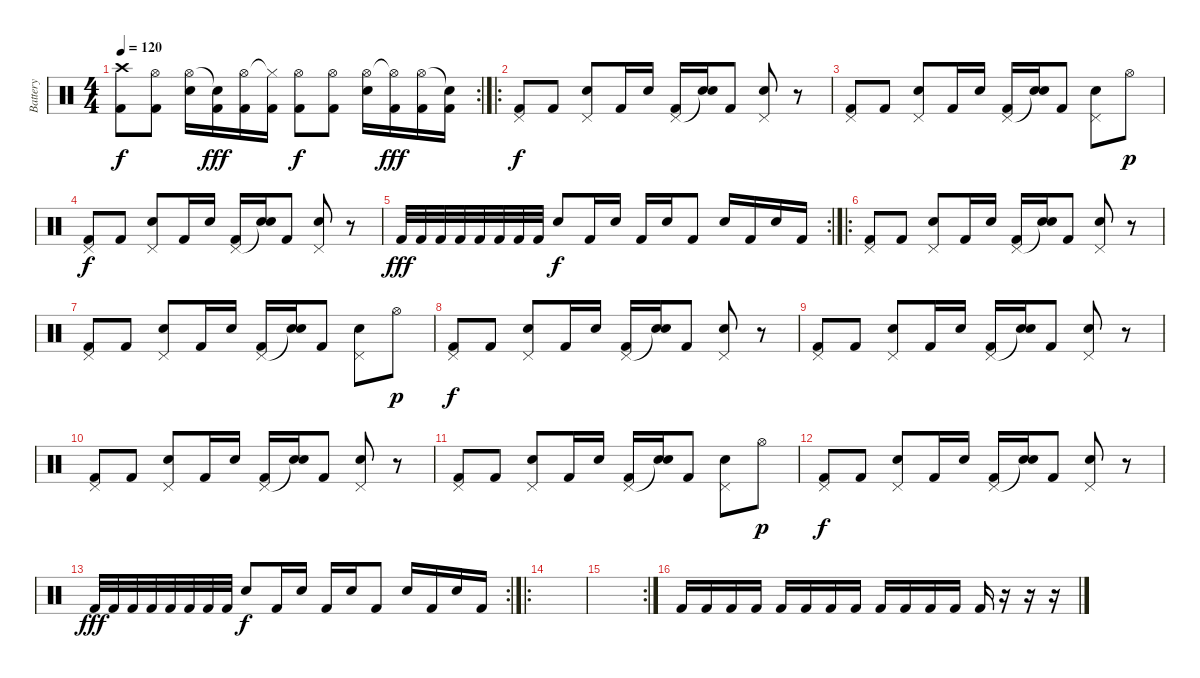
\track ("Battery" "Battery") {instrument percussion}
\staff {score}
\articulation defaults
\rc 2
\ts (4 4)
\tempo 120
\clef neutral
\ks c
("Crash high (hit)" "Kick (hit) 2").8{dy f} ("Hi-Hat (open)" "Kick (hit) 2").8 ("Hi-Hat (open)" "Electric Snare (hit)").16 ("Snare (hit)"{t} "Kick (hit) 2").16{dy fff} ("Hi-Hat (open)" "Kick (hit) 2").16 ("Hi-Hat (closed)"{t} "Kick (hit) 2").16 ("Hi-Hat (open)" "Kick (hit) 2").8{dy f} ("Hi-Hat (open)" "Kick (hit) 2").8 ("Hi-Hat (open)" "Electric Snare (hit)").16 ("Hi-Hat (open)"{t} "Kick (hit) 2").16{dy fff} ("Hi-Hat (open)" "Kick (hit) 2").16 ("Snare (hit)"{t} "Kick (hit) 2").16 |
\ro
("Pedal Hi-Hat (hit)" "Kick (hit) 2").8{dy f} "Kick (hit) 2".8 ("Pedal Hi-Hat (hit)" "Electric Snare (hit)").8 "Kick (hit) 2".16 "Electric Snare (hit)".16 ("Pedal Hi-Hat (hit)" "Kick (hit) 2").16 ("Snare (hit)"{t} "Electric Snare (hit)").16 "Kick (hit) 2".8 ("Pedal Hi-Hat (hit)" "Electric Snare (hit)").8 r.8 |
("Pedal Hi-Hat (hit)" "Kick (hit) 2").8 "Kick (hit) 2".8 ("Pedal Hi-Hat (hit)" "Electric Snare (hit)").8 "Kick (hit) 2".16 "Electric Snare (hit)".16 ("Pedal Hi-Hat (hit)" "Kick (hit) 2").16 ("Snare (hit)"{t} "Electric Snare (hit)").16 "Kick (hit) 2".8 ("Pedal Hi-Hat (hit)" "Electric Snare (hit)").8 "Hi-Hat (open)".8{dy p} |
("Pedal Hi-Hat (hit)" "Kick (hit) 2").8{dy f} "Kick (hit) 2".8 ("Pedal Hi-Hat (hit)" "Electric Snare (hit)").8 "Kick (hit) 2".16 "Electric Snare (hit)".16 ("Pedal Hi-Hat (hit)" "Kick (hit) 2").16 ("Snare (hit)"{t} "Electric Snare (hit)").16 "Kick (hit) 2".8 ("Pedal Hi-Hat (hit)" "Electric Snare (hit)").8 r.8 |
\rc 2 "Kick (hit) 2".32{dy fff} "Kick (hit) 2".32 "Kick (hit) 2".32 "Kick (hit) 2".32 "Kick (hit) 2".32 "Kick (hit) 2".32 "Kick (hit) 2".32 "Kick (hit) 2".32 "Electric Snare (hit)".8{dy f} "Kick (hit) 2".16 "Electric Snare (hit)".16 "Kick (hit) 2".16 "Electric Snare (hit)".16 "Kick (hit) 2".8 "Electric Snare (hit)".16 "Kick (hit) 2".16 "Electric Snare (hit)".16 "Kick (hit) 2".16
|
\ro
("Pedal Hi-Hat (hit)" "Kick (hit) 2").8 "Kick (hit) 2".8 ("Pedal Hi-Hat (hit)" "Electric Snare (hit)").8 "Kick (hit) 2".16 "Electric Snare (hit)".16 ("Pedal Hi-Hat (hit)" "Kick (hit) 2").16 ("Snare (hit)"{t} "Electric Snare (hit)").16 "Kick (hit) 2".8 ("Pedal Hi-Hat (hit)" "Electric Snare (hit)").8 r.8 |
("Pedal Hi-Hat (hit)" "Kick (hit) 2").8 "Kick (hit) 2".8 ("Pedal Hi-Hat (hit)" "Electric Snare (hit)").8 "Kick (hit) 2".16 "Electric Snare (hit)".16 ("Pedal Hi-Hat (hit)" "Kick (hit) 2").16 ("Snare (hit)"{t} "Electric Snare (hit)").16 "Kick (hit) 2".8 ("Pedal Hi-Hat (hit)" "Electric Snare (hit)").8 "Hi-Hat (open)".8{dy p} |
("Pedal Hi-Hat (hit)" "Kick (hit) 2").8{dy f} "Kick (hit) 2".8 ("Pedal Hi-Hat (hit)" "Electric Snare (hit)").8 "Kick (hit) 2".16 "Electric Snare (hit)".16 ("Pedal Hi-Hat (hit)" "Kick (hit) 2").16 ("Snare (hit)"{t} "Electric Snare (hit)").16 "Kick (hit) 2".8 ("Pedal Hi-Hat (hit)" "Electric Snare (hit)").8 r.8 |
("Pedal Hi-Hat (hit)" "Kick (hit) 2").8 "Kick (hit) 2".8 ("Pedal Hi-Hat (hit)" "Electric Snare (hit)").8 "Kick (hit) 2".16 "Electric Snare (hit)".16 ("Pedal Hi-Hat (hit)" "Kick (hit) 2").16 ("Snare (hit)"{t} "Electric Snare (hit)").16 "Kick (hit) 2".8 ("Pedal Hi-Hat (hit)" "Electric Snare (hit)").8 r.8 |
("Pedal Hi-Hat (hit)" "Kick (hit) 2").8 "Kick (hit) 2".8 ("Pedal Hi-Hat (hit)" "Electric Snare (hit)").8 "Kick (hit) 2".16 "Electric Snare (hit)".16 ("Pedal Hi-Hat (hit)" "Kick (hit) 2").16 ("Snare (hit)"{t} "Electric Snare (hit)").16 "Kick (hit) 2".8 ("Pedal Hi-Hat (hit)" "Electric Snare (hit)").8 r.8 |
("Pedal Hi-Hat (hit)" "Kick (hit) 2").8 "Kick (hit) 2".8 ("Pedal Hi-Hat (hit)" "Electric Snare (hit)").8 "Kick (hit) 2".16 "Electric Snare (hit)".16 ("Pedal Hi-Hat (hit)" "Kick (hit) 2").16 ("Snare (hit)"{t} "Electric Snare (hit)").16 "Kick (hit) 2".8 ("Pedal Hi-Hat (hit)" "Electric Snare (hit)").8 "Hi-Hat (open)".8{dy p} |
("Pedal Hi-Hat (hit)" "Kick (hit) 2").8{dy f} "Kick (hit) 2".8 ("Pedal Hi-Hat (hit)" "Electric Snare (hit)").8 "Kick (hit) 2".16 "Electric Snare (hit)".16 ("Pedal Hi-Hat (hit)" "Kick (hit) 2").16 ("Snare (hit)"{t} "Electric Snare (hit)").16 "Kick (hit) 2".8 ("Pedal Hi-Hat (hit)" "Electric Snare (hit)").8 r.8 |
\rc 2 "Kick (hit) 2".32{dy fff} "Kick (hit) 2".32 "Kick (hit) 2".32 "Kick (hit) 2".32 "Kick (hit) 2".32 "Kick (hit) 2".32 "Kick (hit) 2".32 "Kick (hit) 2".32 "Electric Snare (hit)".8{dy f} "Kick (hit) 2".16 "Electric Snare (hit)".16 "Kick (hit) 2".16 "Electric Snare (hit)".16 "Kick (hit) 2".8 "Electric Snare (hit)".16 "Kick (hit) 2".16 "Electric Snare (hit)".16 "Kick (hit) 2".16
|
\ro
|
\rc 2
|
"Kick (hit) 2".16 "Kick (hit) 2".16 "Kick (hit) 2".16 "Kick (hit) 2".16 "Kick (hit) 2".16 "Kick (hit) 2".16 "Kick (hit) 2".16 "Kick (hit) 2".16 "Kick (hit) 2".16 "Kick (hit) 2".16 "Kick (hit) 2".16 "Kick (hit) 2".16 "Kick (hit) 2".16 r.16 r.16 r.16
